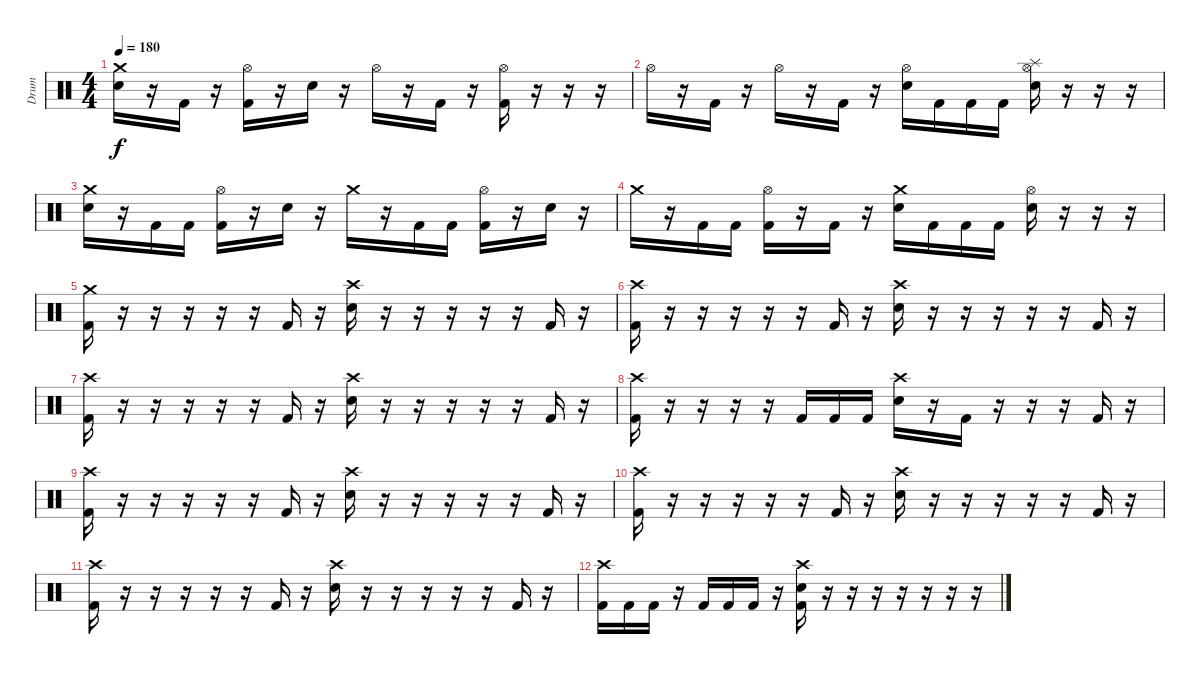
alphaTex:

\track ("Drum" "Drum") {instrument percussion}
\staff {score}
\articulation defaults
\ts (4 4)
\tempo 180
\clef neutral
\ks c
("Crash medium (hit)" "Electric Snare (hit)").16{dy f} r.16 "Kick (hit) 2".16 r.16 ("Hi-Hat (open)" "Kick (hit) 2").16 r.16 "Electric Snare (hit)".16 r.16 "Hi-Hat (open)".16 r.16 "Kick (hit) 2".16 r.16 ("Hi-Hat (open)" "Kick (hit) 2").16 r.16 r.16 r.16 |
"Hi-Hat (open)".16 r.16 "Kick (hit) 2".16 r.16 "Hi-Hat (open)".16 r.16 "Kick (hit) 2".16 r.16 ("Hi-Hat (open)" "Electric Snare (hit)").16 "Kick (hit) 2".16 "Kick (hit) 2".16 "Kick (hit) 2".16 ("Hi-Hat (open)" "Splash (hit)" "Electric Snare (hit)").16 r.16 r.16 r.16 |
("Crash medium (hit)" "Electric Snare (hit)").16 r.16 "Kick (hit) 2".16 "Kick (hit) 2".16 ("Hi-Hat (open)" "Kick (hit) 2").16 r.16 "Electric Snare (hit)".16 r.16 "Crash medium (hit)".16 r.16 "Kick (hit) 2".16 "Kick (hit) 2".16 ("Hi-Hat (open)" "Kick (hit) 2").16 r.16 "Electric Snare (hit)".16 r.16 |
"Crash medium (hit)".16 r.16 "Kick (hit) 2".16 "Kick (hit) 2".16 ("Hi-Hat (open)" "Kick (hit) 2").16 r.16 "Kick (hit) 2".16 r.16 ("Crash medium (hit)" "Electric Snare (hit)").16 "Kick (hit) 2".16 "Kick (hit) 2".16 "Kick (hit) 2".16 ("Hi-Hat (open)" "Electric Snare (hit)").16 r.16 r.16 r.16 |
("Crash medium (hit)" "Kick (hit) 2").16 r.16 r.16 r.16 r.16 r.16 "Kick (hit) 2".16 r.16 ("Crash high (hit)" "Electric Snare (hit)").16 r.16 r.16 r.16 r.16 r.16 "Kick (hit) 2".16 r.16 |
("Crash high (hit)" "Kick (hit) 2").16 r.16 r.16 r.16 r.16 r.16 "Kick (hit) 2".16 r.16 ("Crash high (hit)" "Electric Snare (hit)").16 r.16 r.16 r.16 r.16 r.16 "Kick (hit) 2".16 r.16 |
("Crash high (hit)" "Kick (hit) 2").16 r.16 r.16 r.16 r.16 r.16 "Kick (hit) 2".16 r.16 ("Crash high (hit)" "Electric Snare (hit)").16 r.16 r.16 r.16 r.16 r.16 "Kick (hit) 2".16 r.16 |
("Crash high (hit)" "Kick (hit) 2").16 r.16 r.16 r.16 r.16 "Kick (hit) 2".16 "Kick (hit) 2".16 "Kick (hit) 2".16 ("Crash high (hit)" "Electric Snare (hit)").16 r.16 "Kick (hit) 2".16 r.16 r.16 r.16 "Kick (hit) 2".16 r.16 |
("Crash high (hit)" "Kick (hit) 2").16 r.16 r.16 r.16 r.16 r.16 "Kick (hit) 2".16 r.16 ("Crash high (hit)" "Electric Snare (hit)").16 r.16 r.16 r.16 r.16 r.16 "Kick (hit) 2".16 r.16 |
("Crash high (hit)" "Kick (hit) 2").16 r.16 r.16 r.16 r.16 r.16 "Kick (hit) 2".16 r.16 ("Crash high (hit)" "Electric Snare (hit)").16 r.16 r.16 r.16 r.16 r.16 "Kick (hit) 2".16 r.16 |
("Crash high (hit)" "Kick (hit) 2").16 r.16 r.16 r.16 r.16 r.16 "Kick (hit) 2".16 r.16 ("Crash high (hit)" "Electric Snare (hit)").16 r.16 r.16 r.16 r.16 r.16 "Kick (hit) 2".16 r.16 |
("Crash high (hit)" "Kick (hit) 2").16 "Kick (hit) 2".16 "Kick (hit) 2".16 r.16 "Kick (hit) 2".16 "Kick (hit) 2".16 "Kick (hit) 2".16 r.16 ("Crash high (hit)" "Electric Snare (hit)" "Kick (hit) 2").16 r.16 r.16 r.16 r.16 r.16 r.16 r.16
